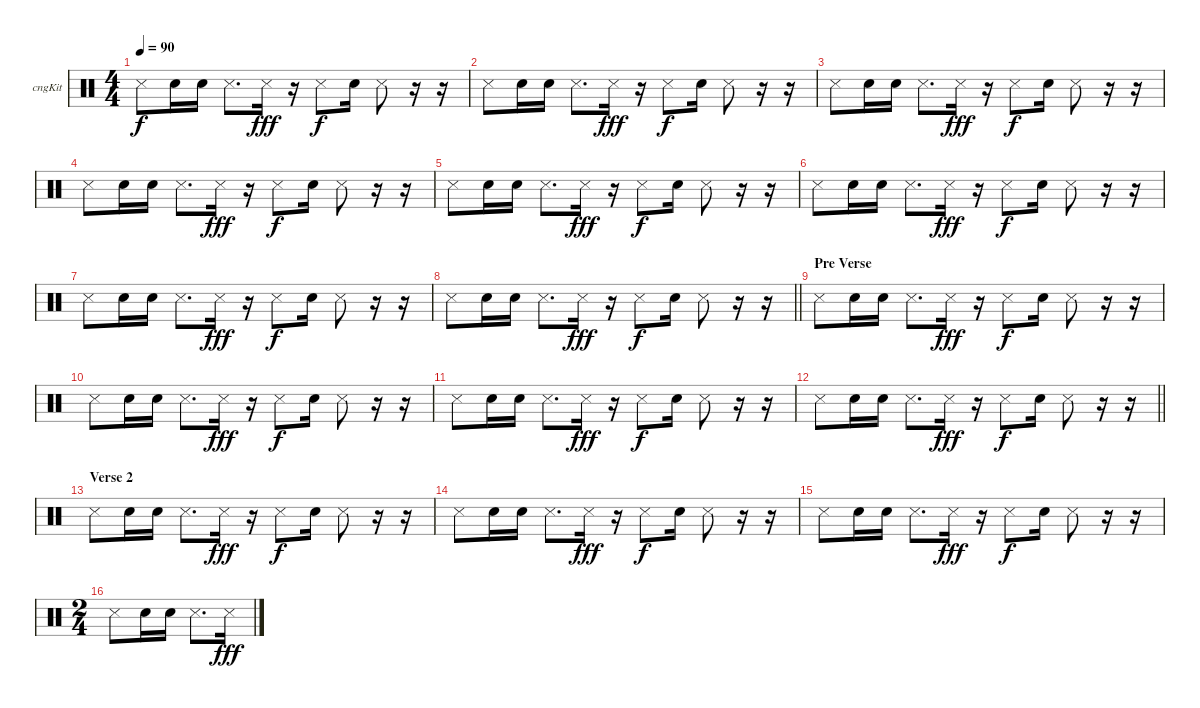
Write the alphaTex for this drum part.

\bracketExtendMode groupsimilarinstruments
\firstSystemTrackNameOrientation horizontal
\otherSystemsTrackNameOrientation horizontal
\track ("Congas" "cngKit") {multiBarRest instrument percussion}
\staff {score}
\articulation defaults
\ts (4 4)
\tempo 90
\clef neutral
\ks c "Snare (side stick) 3".8{dy f} "Snare (hit) 2".16 "Snare (hit) 2".16 "Snare (side stick) 3".8{d} "Snare (side stick) 3".16{dy fff}
r.16 "Snare (side stick) 3".8{dy f} "Snare (hit) 2".16 "Snare (side stick) 3".8 r.16 r.16 |
"Snare (side stick) 3".8 "Snare (hit) 2".16 "Snare (hit) 2".16 "Snare (side stick) 3".8{d} "Snare (side stick) 3".16{dy fff} r.16 "Snare (side stick) 3".8{dy f} "Snare (hit) 2".16 "Snare (side stick) 3".8 r.16 r.16 |
"Snare (side stick) 3".8 "Snare (hit) 2".16 "Snare (hit) 2".16 "Snare (side stick) 3".8{d} "Snare (side stick) 3".16{dy fff} r.16 "Snare (side stick) 3".8{dy f} "Snare (hit) 2".16 "Snare (side stick) 3".8 r.16 r.16 |
"Snare (side stick) 3".8 "Snare (hit) 2".16 "Snare (hit) 2".16 "Snare (side stick) 3".8{d} "Snare (side stick) 3".16{dy fff} r.16 "Snare (side stick) 3".8{dy f} "Snare (hit) 2".16 "Snare (side stick) 3".8 r.16 r.16 |
"Snare (side stick) 3".8 "Snare (hit) 2".16 "Snare (hit) 2".16 "Snare (side stick) 3".8{d} "Snare (side stick) 3".16{dy fff} r.16 "Snare (side stick) 3".8{dy f} "Snare (hit) 2".16 "Snare (side stick) 3".8 r.16 r.16 |
"Snare (side stick) 3".8 "Snare (hit) 2".16 "Snare (hit) 2".16 "Snare (side stick) 3".8{d} "Snare (side stick) 3".16{dy fff} r.16 "Snare (side stick) 3".8{dy f} "Snare (hit) 2".16 "Snare (side stick) 3".8 r.16 r.16 |
"Snare (side stick) 3".8 "Snare (hit) 2".16 "Snare (hit) 2".16 "Snare (side stick) 3".8{d} "Snare (side stick) 3".16{dy fff} r.16 "Snare (side stick) 3".8{dy f} "Snare (hit) 2".16 "Snare (side stick) 3".8 r.16 r.16 |
\barLineRight lightlight "Snare (side stick) 3".8 "Snare (hit) 2".16 "Snare (hit) 2".16 "Snare (side stick) 3".8{d} "Snare (side stick) 3".16{dy fff}
r.16 "Snare (side stick) 3".8{dy f} "Snare (hit) 2".16 "Snare (side stick) 3".8 r.16 r.16 |
\section ("" "Pre Verse")
"Snare (side stick) 3".8 "Snare (hit) 2".16 "Snare (hit) 2".16 "Snare (side stick) 3".8{d} "Snare (side stick) 3".16{dy fff} r.16 "Snare (side stick) 3".8{dy f} "Snare (hit) 2".16 "Snare (side stick) 3".8 r.16 r.16 |
"Snare (side stick) 3".8 "Snare (hit) 2".16 "Snare (hit) 2".16 "Snare (side stick) 3".8{d} "Snare (side stick) 3".16{dy fff} r.16 "Snare (side stick) 3".8{dy f} "Snare (hit) 2".16 "Snare (side stick) 3".8 r.16 r.16 |
"Snare (side stick) 3".8 "Snare (hit) 2".16 "Snare (hit) 2".16 "Snare (side stick) 3".8{d} "Snare (side stick) 3".16{dy fff} r.16 "Snare (side stick) 3".8{dy f} "Snare (hit) 2".16 "Snare (side stick) 3".8 r.16 r.16 |
\barLineRight lightlight "Snare (side stick) 3".8 "Snare (hit) 2".16 "Snare (hit) 2".16 "Snare (side stick) 3".8{d} "Snare (side stick) 3".16{dy fff}
r.16 "Snare (side stick) 3".8{dy f} "Snare (hit) 2".16 "Snare (side stick) 3".8 r.16 r.16 |
\section ("" "Verse 2")
"Snare (side stick) 3".8 "Snare (hit) 2".16 "Snare (hit) 2".16 "Snare (side stick) 3".8{d} "Snare (side stick) 3".16{dy fff} r.16 "Snare (side stick) 3".8{dy f} "Snare (hit) 2".16 "Snare (side stick) 3".8 r.16 r.16 |
"Snare (side stick) 3".8 "Snare (hit) 2".16 "Snare (hit) 2".16 "Snare (side stick) 3".8{d} "Snare (side stick) 3".16{dy fff} r.16 "Snare (side stick) 3".8{dy f} "Snare (hit) 2".16 "Snare (side stick) 3".8 r.16 r.16 |
"Snare (side stick) 3".8 "Snare (hit) 2".16 "Snare (hit) 2".16 "Snare (side stick) 3".8{d} "Snare (side stick) 3".16{dy fff} r.16 "Snare (side stick) 3".8{dy f} "Snare (hit) 2".16 "Snare (side stick) 3".8 r.16 r.16 |
\ts (2 4)
\beaming (8 2 2)
"Snare (side stick) 3".8 "Snare (hit) 2".16 "Snare (hit) 2".16 "Snare (side stick) 3".8{d} "Snare (side stick) 3".16{dy fff}
